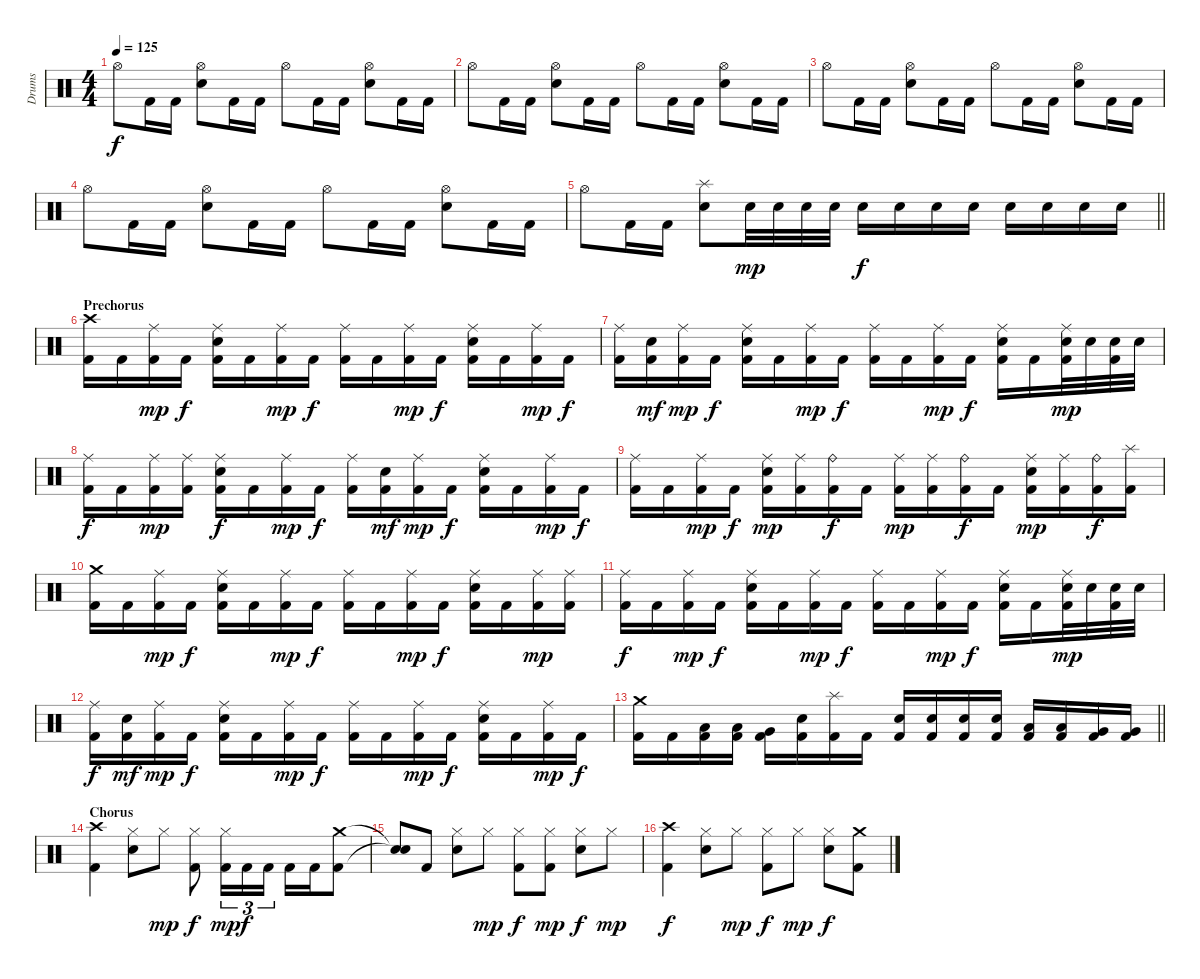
\track ("Drums" "Drums") {instrument percussion}
\staff {score}
\articulation defaults
\ts (4 4)
\tempo 125
\clef neutral
\ks c "Hi-Hat (open)".8{dy f} "Kick (hit) 2".16 "Kick (hit) 2".16
("Hi-Hat (open)" "Electric Snare (hit)").8 "Kick (hit) 2".16 "Kick (hit) 2".16 "Hi-Hat (open)".8 "Kick (hit) 2".16 "Kick (hit) 2".16 ("Hi-Hat (open)" "Electric Snare (hit)").8 "Kick (hit) 2".16 "Kick (hit) 2".16 |
"Hi-Hat (open)".8 "Kick (hit) 2".16 "Kick (hit) 2".16 ("Hi-Hat (open)" "Electric Snare (hit)").8 "Kick (hit) 2".16 "Kick (hit) 2".16 "Hi-Hat (open)".8 "Kick (hit) 2".16 "Kick (hit) 2".16 ("Hi-Hat (open)" "Electric Snare (hit)").8 "Kick (hit) 2".16 "Kick (hit) 2".16 |
"Hi-Hat (open)".8 "Kick (hit) 2".16 "Kick (hit) 2".16 ("Hi-Hat (open)" "Electric Snare (hit)").8 "Kick (hit) 2".16 "Kick (hit) 2".16 "Hi-Hat (open)".8 "Kick (hit) 2".16 "Kick (hit) 2".16 ("Hi-Hat (open)" "Electric Snare (hit)").8 "Kick (hit) 2".16 "Kick (hit) 2".16 |
"Hi-Hat (open)".8 "Kick (hit) 2".16 "Kick (hit) 2".16 ("Hi-Hat (open)" "Electric Snare (hit)").8 "Kick (hit) 2".16 "Kick (hit) 2".16 "Hi-Hat (open)".8 "Kick (hit) 2".16 "Kick (hit) 2".16 ("Hi-Hat (open)" "Electric Snare (hit)").8 "Kick (hit) 2".16 "Kick (hit) 2".16 |
\barLineRight lightlight "Hi-Hat (open)".8 "Kick (hit) 2".16 "Kick (hit) 2".16
("Splash (hit)" "Electric Snare (hit)").8 "Electric Snare (hit)".32{dy mp} "Electric Snare (hit)".32 "Electric Snare (hit)".32 "Electric Snare (hit)".32 "Electric Snare (hit)".16{dy f} "Electric Snare (hit)".16 "Electric Snare (hit)".16 "Electric Snare (hit)".16 "Electric Snare (hit)".16 "Electric Snare (hit)".16 "Electric Snare (hit)".16 "Electric Snare (hit)".16 |
\section ("" "Prechorus")
("Kick (hit) 2" "Crash high (hit)").16 "Kick (hit) 2".16 ("Kick (hit) 2" "Ride (middle)").16{dy mp} "Kick (hit) 2".16{dy f} ("Kick (hit) 2" "Ride (middle)" "Electric Snare (hit)").16 "Kick (hit) 2".16 ("Kick (hit) 2" "Ride (middle)").16{dy mp} "Kick (hit) 2".16{dy f} ("Kick (hit) 2" "Ride (middle)").16 "Kick (hit) 2".16 ("Kick (hit) 2" "Ride (middle)").16{dy mp} "Kick (hit) 2".16{dy f} ("Kick (hit) 2" "Ride (middle)" "Electric Snare (hit)").16 "Kick (hit) 2".16 ("Kick (hit) 2" "Ride (middle)").16{dy mp} "Kick (hit) 2".16{dy f} |
("Kick (hit) 2" "Ride (middle)").16 ("Kick (hit) 2" "Electric Snare (hit)").16{dy mf} ("Kick (hit) 2" "Ride (middle)").16{dy mp} "Kick (hit) 2".16{dy f} ("Kick (hit) 2" "Ride (middle)" "Electric Snare (hit)").16 "Kick (hit) 2".16 ("Kick (hit) 2" "Ride (middle)").16{dy mp} "Kick (hit) 2".16{dy f} ("Kick (hit) 2" "Ride (middle)").16 "Kick (hit) 2".16 ("Kick (hit) 2" "Ride (middle)").16{dy mp} "Kick (hit) 2".16{dy f} ("Kick (hit) 2" "Ride (middle)" "Electric Snare (hit)").16 "Kick (hit) 2".16 ("Kick (hit) 2" "Ride (middle)" "Electric Snare (hit)").32{dy mp} "Electric Snare (hit)".32 ("Kick (hit) 2" "Electric Snare (hit)").32 "Electric Snare (hit)".32 |
("Kick (hit) 2" "Ride (middle)").16{dy f} "Kick (hit) 2".16 ("Kick (hit) 2" "Ride (middle)").16{dy mp} ("Kick (hit) 2" "Ride (middle)").16 ("Kick (hit) 2" "Ride (middle)" "Electric Snare (hit)").16{dy f} "Kick (hit) 2".16 ("Kick (hit) 2" "Ride (middle)").16{dy mp} "Kick (hit) 2".16{dy f} ("Kick (hit) 2" "Ride (middle)").16 ("Kick (hit) 2" "Electric Snare (hit)").16{dy mf} ("Kick (hit) 2" "Ride (middle)").16{dy mp} "Kick (hit) 2".16{dy f} ("Kick (hit) 2" "Ride (middle)" "Electric Snare (hit)").16 "Kick (hit) 2".16 ("Kick (hit) 2" "Ride (middle)").16{dy mp} "Kick (hit) 2".16{dy f} |
("Kick (hit) 2" "Ride (middle)").16 "Kick (hit) 2".16 ("Kick (hit) 2" "Ride (middle)").16{dy mp} "Kick (hit) 2".16{dy f} ("Kick (hit) 2" "Ride (middle)" "Electric Snare (hit)").16{dy mp} ("Kick (hit) 2" "Ride (middle)").16 ("Kick (hit) 2" "Ride (bell)").16{dy f} "Kick (hit) 2".16 ("Kick (hit) 2" "Ride (middle)").16{dy mp} ("Kick (hit) 2" "Ride (middle)").16 ("Kick (hit) 2" "Ride (bell)").16{dy f} "Kick (hit) 2".16 ("Kick (hit) 2" "Ride (middle)" "Electric Snare (hit)").16{dy mp} ("Kick (hit) 2" "Ride (middle)").16 ("Kick (hit) 2" "Ride (bell)").16{dy f} ("Kick (hit) 2" "Splash (hit)").16 |
("Kick (hit) 2" "Crash medium (hit)").16 "Kick (hit) 2".16 ("Kick (hit) 2" "Ride (middle)").16{dy mp} "Kick (hit) 2".16{dy f} ("Kick (hit) 2" "Ride (middle)" "Electric Snare (hit)").16 "Kick (hit) 2".16 ("Kick (hit) 2" "Ride (middle)").16{dy mp} "Kick (hit) 2".16{dy f} ("Kick (hit) 2" "Ride (middle)").16 "Kick (hit) 2".16 ("Kick (hit) 2" "Ride (middle)").16{dy mp} "Kick (hit) 2".16{dy f} ("Kick (hit) 2" "Ride (middle)" "Electric Snare (hit)").16 "Kick (hit) 2".16 ("Kick (hit) 2" "Ride (middle)").16{dy mp} ("Kick (hit) 2" "Ride (middle)").16 |
("Kick (hit) 2" "Ride (middle)").16{dy f} "Kick (hit) 2".16 ("Kick (hit) 2" "Ride (middle)").16{dy mp} "Kick (hit) 2".16{dy f} ("Kick (hit) 2" "Ride (middle)" "Electric Snare (hit)").16 "Kick (hit) 2".16 ("Kick (hit) 2" "Ride (middle)").16{dy mp} "Kick (hit) 2".16{dy f} ("Kick (hit) 2" "Ride (middle)").16 "Kick (hit) 2".16 ("Kick (hit) 2" "Ride (middle)").16{dy mp} "Kick (hit) 2".16{dy f} ("Kick (hit) 2" "Ride (middle)" "Electric Snare (hit)").16 "Kick (hit) 2".16 ("Kick (hit) 2" "Ride (middle)" "Electric Snare (hit)").32{dy mp} "Electric Snare (hit)".32 ("Kick (hit) 2" "Electric Snare (hit)").32 "Electric Snare (hit)".32 |
("Kick (hit) 2" "Ride (middle)").16{dy f} ("Kick (hit) 2" "Electric Snare (hit)").16{dy mf} ("Kick (hit) 2" "Ride (middle)").16{dy mp} "Kick (hit) 2".16{dy f} ("Kick (hit) 2" "Ride (middle)" "Electric Snare (hit)").16 "Kick (hit) 2".16 ("Kick (hit) 2" "Ride (middle)").16{dy mp} "Kick (hit) 2".16{dy f} ("Kick (hit) 2" "Ride (middle)").16 "Kick (hit) 2".16 ("Kick (hit) 2" "Ride (middle)").16{dy mp} "Kick (hit) 2".16{dy f} ("Kick (hit) 2" "Ride (middle)" "Electric Snare (hit)").16 "Kick (hit) 2".16 ("Kick (hit) 2" "Ride (middle)").16{dy mp} "Kick (hit) 2".16{dy f} |
\barLineRight lightlight
("Kick (hit) 2" "Crash medium (hit)").16 "Kick (hit) 2".16 ("Kick (hit) 2" "Low Tom (hit)").16 ("Kick (hit) 2" "Low Tom (hit)").16 ("Kick (hit) 2" "Very Low Tom (hit)").16 ("Kick (hit) 2" "Electric Snare (hit)").16 ("Kick (hit) 2" "Splash (hit)").16 "Kick (hit) 2".16 ("Kick (hit) 2" "Electric Snare (hit)").16 ("Kick (hit) 2" "Electric Snare (hit)").16 ("Kick (hit) 2" "Electric Snare (hit)").16 ("Kick (hit) 2" "Electric Snare (hit)").16 ("Kick (hit) 2" "Low Tom (hit)").16 ("Kick (hit) 2" "Low Tom (hit)").16 ("Kick (hit) 2" "Very Low Tom (hit)").16 ("Kick (hit) 2" "Very Low Tom (hit)").16 |
\section ("" "Chorus")
("Kick (hit) 2" "Crash high (hit)").4 ("Hi-Hat (closed)" "Electric Snare (hit)").8 "Hi-Hat (closed)".8{dy mp} ("Kick (hit) 2" "Hi-Hat (closed)").8{dy f} ("Kick (hit) 2" "Hi-Hat (closed)").16{tu (3 2) dy mp} "Kick (hit) 2".16{tu (3 2) dy f} "Kick (hit) 2".16{tu (3 2)} "Kick (hit) 2".16 "Kick (hit) 2".16 ("Kick (hit) 2" "Crash medium (hit)").8 |
("Snare (hit)"{t} "Snare (hit)"{t}).8 "Kick (hit) 2".8 ("Hi-Hat (closed)" "Electric Snare (hit)").8 "Hi-Hat (closed)".8{dy mp} ("Kick (hit) 2" "Hi-Hat (closed)").8{dy f} ("Kick (hit) 2" "Hi-Hat (closed)").8{dy mp} ("Hi-Hat (closed)" "Electric Snare (hit)").8{dy f} "Hi-Hat (closed)".8{dy mp} |
("Kick (hit) 2" "Crash high (hit)").4{dy f} ("Hi-Hat (closed)" "Electric Snare (hit)").8 "Hi-Hat (closed)".8{dy mp} ("Kick (hit) 2" "Hi-Hat (closed)").8{dy f} "Hi-Hat (closed)".8{dy mp} ("Hi-Hat (closed)" "Electric Snare (hit)").8{dy f} ("Kick (hit) 2" "Crash medium (hit)").8
